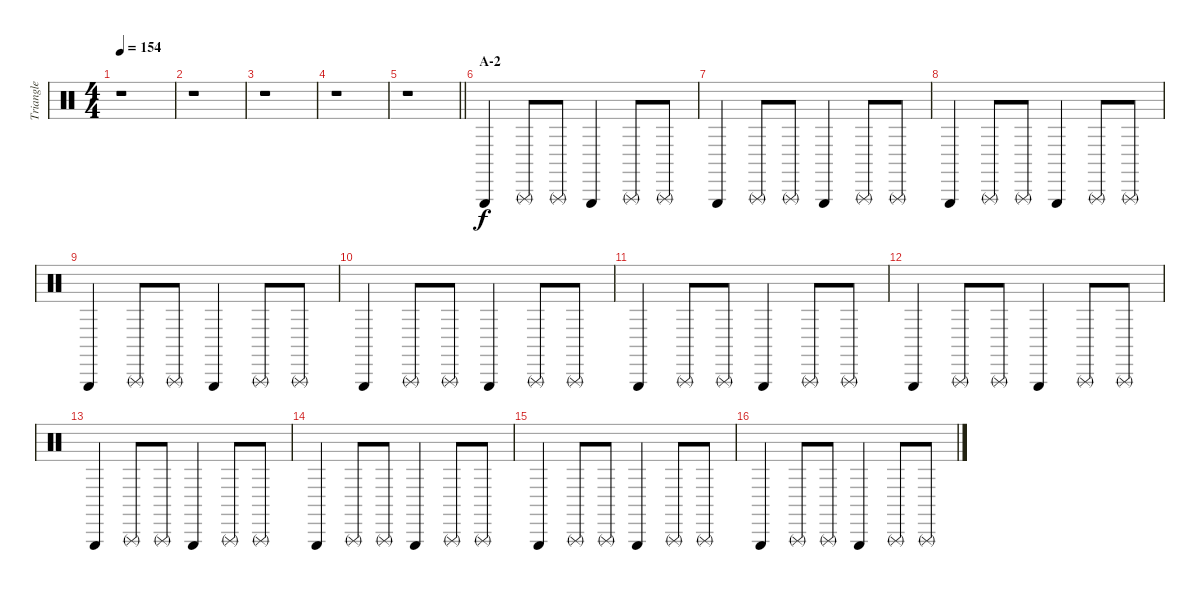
\track ("Triangle" "Triangle") {instrument percussion}
\staff {score}
\articulation defaults
\ts (4 4)
\tempo 154
\clef neutral
\ks c
r.1{dy f} |
r.1 |
r.1 |
r.1 |
\barLineRight lightlight
r.1 |
\section ("" "A-2")
"Triangle (hit)".4 "Triangle (rnute)".8 "Triangle (rnute)".8 "Triangle (hit)".4 "Triangle (rnute)".8 "Triangle (rnute)".8 |
"Triangle (hit)".4 "Triangle (rnute)".8 "Triangle (rnute)".8 "Triangle (hit)".4 "Triangle (rnute)".8 "Triangle (rnute)".8 |
"Triangle (hit)".4 "Triangle (rnute)".8 "Triangle (rnute)".8 "Triangle (hit)".4 "Triangle (rnute)".8 "Triangle (rnute)".8 |
"Triangle (hit)".4 "Triangle (rnute)".8 "Triangle (rnute)".8 "Triangle (hit)".4 "Triangle (rnute)".8 "Triangle (rnute)".8 |
"Triangle (hit)".4 "Triangle (rnute)".8 "Triangle (rnute)".8 "Triangle (hit)".4 "Triangle (rnute)".8 "Triangle (rnute)".8 |
"Triangle (hit)".4 "Triangle (rnute)".8 "Triangle (rnute)".8 "Triangle (hit)".4 "Triangle (rnute)".8 "Triangle (rnute)".8 |
"Triangle (hit)".4 "Triangle (rnute)".8 "Triangle (rnute)".8 "Triangle (hit)".4 "Triangle (rnute)".8 "Triangle (rnute)".8 |
"Triangle (hit)".4 "Triangle (rnute)".8 "Triangle (rnute)".8 "Triangle (hit)".4 "Triangle (rnute)".8 "Triangle (rnute)".8 |
"Triangle (hit)".4 "Triangle (rnute)".8 "Triangle (rnute)".8 "Triangle (hit)".4 "Triangle (rnute)".8 "Triangle (rnute)".8 |
"Triangle (hit)".4 "Triangle (rnute)".8 "Triangle (rnute)".8 "Triangle (hit)".4 "Triangle (rnute)".8 "Triangle (rnute)".8 |
"Triangle (hit)".4 "Triangle (rnute)".8 "Triangle (rnute)".8 "Triangle (hit)".4 "Triangle (rnute)".8 "Triangle (rnute)".8
